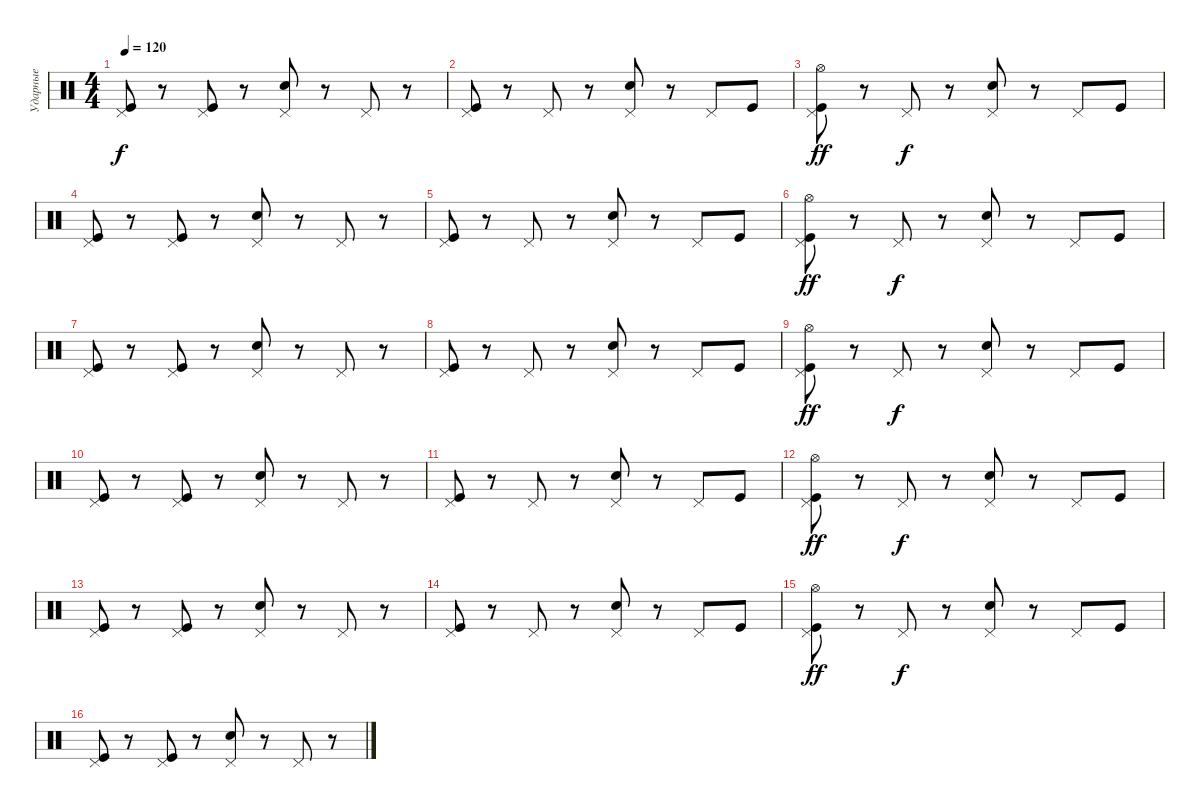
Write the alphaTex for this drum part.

\track ("Ударные" "Ударные") {instrument percussion}
\staff {score}
\articulation defaults
\ts (4 4)
\tempo 120
\clef neutral
\ks c
("Pedal Hi-Hat (hit)" "Kick (hit)").8{dy f} r.8 ("Kick (hit)" "Pedal Hi-Hat (hit)").8 r.8 ("Snare (hit) 2" "Pedal Hi-Hat (hit)").8 r.8 "Pedal Hi-Hat (hit)".8 r.8 |
("Kick (hit)" "Pedal Hi-Hat (hit)").8 r.8 "Pedal Hi-Hat (hit)".8 r.8 ("Snare (hit) 2" "Pedal Hi-Hat (hit)").8 r.8 "Pedal Hi-Hat (hit)".8 "Kick (hit)".8 |
("Kick (hit)" "Pedal Hi-Hat (hit)" "Hi-Hat (open)").8{dy ff} r.8 "Pedal Hi-Hat (hit)".8{dy f} r.8 ("Snare (hit) 2" "Pedal Hi-Hat (hit)").8 r.8 "Pedal Hi-Hat (hit)".8 "Kick (hit)".8 |
("Pedal Hi-Hat (hit)" "Kick (hit)").8 r.8 ("Kick (hit)" "Pedal Hi-Hat (hit)").8 r.8 ("Snare (hit) 2" "Pedal Hi-Hat (hit)").8 r.8 "Pedal Hi-Hat (hit)".8 r.8 |
("Kick (hit)" "Pedal Hi-Hat (hit)").8 r.8 "Pedal Hi-Hat (hit)".8 r.8 ("Snare (hit) 2" "Pedal Hi-Hat (hit)").8 r.8 "Pedal Hi-Hat (hit)".8 "Kick (hit)".8 |
("Kick (hit)" "Pedal Hi-Hat (hit)" "Hi-Hat (open)").8{dy ff} r.8 "Pedal Hi-Hat (hit)".8{dy f} r.8 ("Snare (hit) 2" "Pedal Hi-Hat (hit)").8 r.8 "Pedal Hi-Hat (hit)".8 "Kick (hit)".8 |
("Pedal Hi-Hat (hit)" "Kick (hit)").8 r.8 ("Kick (hit)" "Pedal Hi-Hat (hit)").8 r.8 ("Snare (hit) 2" "Pedal Hi-Hat (hit)").8 r.8 "Pedal Hi-Hat (hit)".8 r.8 |
("Kick (hit)" "Pedal Hi-Hat (hit)").8 r.8 "Pedal Hi-Hat (hit)".8 r.8 ("Snare (hit) 2" "Pedal Hi-Hat (hit)").8 r.8 "Pedal Hi-Hat (hit)".8 "Kick (hit)".8 |
("Kick (hit)" "Pedal Hi-Hat (hit)" "Hi-Hat (open)").8{dy ff} r.8 "Pedal Hi-Hat (hit)".8{dy f} r.8 ("Snare (hit) 2" "Pedal Hi-Hat (hit)").8 r.8 "Pedal Hi-Hat (hit)".8 "Kick (hit)".8 |
("Pedal Hi-Hat (hit)" "Kick (hit)").8 r.8 ("Kick (hit)" "Pedal Hi-Hat (hit)").8 r.8 ("Snare (hit) 2" "Pedal Hi-Hat (hit)").8 r.8 "Pedal Hi-Hat (hit)".8 r.8 |
("Kick (hit)" "Pedal Hi-Hat (hit)").8 r.8 "Pedal Hi-Hat (hit)".8 r.8 ("Snare (hit) 2" "Pedal Hi-Hat (hit)").8 r.8 "Pedal Hi-Hat (hit)".8 "Kick (hit)".8 |
("Kick (hit)" "Pedal Hi-Hat (hit)" "Hi-Hat (open)").8{dy ff} r.8 "Pedal Hi-Hat (hit)".8{dy f} r.8 ("Snare (hit) 2" "Pedal Hi-Hat (hit)").8 r.8 "Pedal Hi-Hat (hit)".8 "Kick (hit)".8 |
("Pedal Hi-Hat (hit)" "Kick (hit)").8 r.8 ("Kick (hit)" "Pedal Hi-Hat (hit)").8 r.8 ("Snare (hit) 2" "Pedal Hi-Hat (hit)").8 r.8 "Pedal Hi-Hat (hit)".8 r.8 |
("Kick (hit)" "Pedal Hi-Hat (hit)").8 r.8 "Pedal Hi-Hat (hit)".8 r.8 ("Snare (hit) 2" "Pedal Hi-Hat (hit)").8 r.8 "Pedal Hi-Hat (hit)".8 "Kick (hit)".8 |
("Kick (hit)" "Pedal Hi-Hat (hit)" "Hi-Hat (open)").8{dy ff} r.8 "Pedal Hi-Hat (hit)".8{dy f} r.8 ("Snare (hit) 2" "Pedal Hi-Hat (hit)").8 r.8 "Pedal Hi-Hat (hit)".8 "Kick (hit)".8 |
("Pedal Hi-Hat (hit)" "Kick (hit)").8 r.8 ("Kick (hit)" "Pedal Hi-Hat (hit)").8 r.8 ("Snare (hit) 2" "Pedal Hi-Hat (hit)").8 r.8 "Pedal Hi-Hat (hit)".8 r.8
